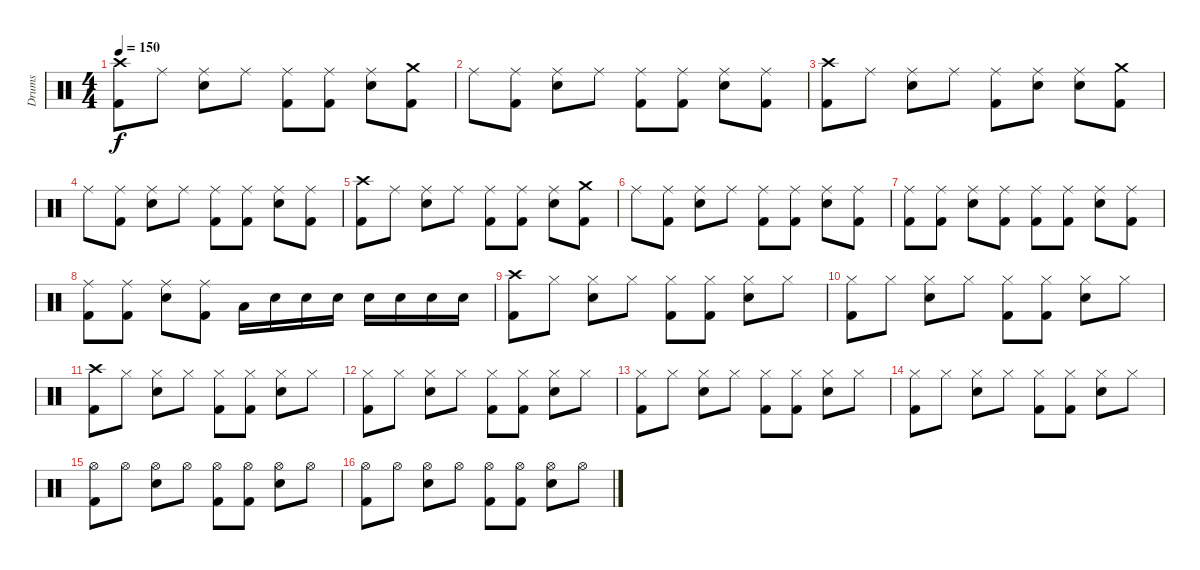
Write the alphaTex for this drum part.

\track ("Drums" "Drums") {instrument percussion}
\staff {score}
\articulation defaults
\ts (4 4)
\tempo 150
\clef neutral
\ks c
("Crash high (hit)" "Kick (hit) 2").8{dy f} "Ride (middle)".8 ("Ride (middle)" "Electric Snare (hit)").8 "Ride (middle)".8 ("Ride (middle)" "Kick (hit) 2").8 ("Ride (middle)" "Kick (hit) 2").8 ("Ride (middle)" "Electric Snare (hit)").8 ("Crash medium (hit)" "Kick (hit) 2").8 |
"Ride (middle)".8 ("Ride (middle)" "Kick (hit) 2").8 ("Ride (middle)" "Electric Snare (hit)").8 "Ride (middle)".8 ("Ride (middle)" "Kick (hit) 2").8 ("Ride (middle)" "Kick (hit) 2").8 ("Ride (middle)" "Electric Snare (hit)").8 ("Ride (middle)" "Kick (hit) 2").8 |
("Crash high (hit)" "Kick (hit) 2").8 "Ride (middle)".8 ("Ride (middle)" "Electric Snare (hit)").8 "Ride (middle)".8 ("Ride (middle)" "Kick (hit) 2").8 ("Ride (middle)" "Electric Snare (hit)").8 ("Ride (middle)" "Electric Snare (hit)").8 ("Crash medium (hit)" "Kick (hit) 2").8 |
"Ride (middle)".8 ("Ride (middle)" "Kick (hit) 2").8 ("Ride (middle)" "Electric Snare (hit)").8 "Ride (middle)".8 ("Ride (middle)" "Kick (hit) 2").8 ("Ride (middle)" "Kick (hit) 2").8 ("Ride (middle)" "Electric Snare (hit)").8 ("Ride (middle)" "Kick (hit) 2").8 |
("Crash high (hit)" "Kick (hit) 2").8 "Ride (middle)".8 ("Ride (middle)" "Electric Snare (hit)").8 "Ride (middle)".8 ("Ride (middle)" "Kick (hit) 2").8 ("Ride (middle)" "Kick (hit) 2").8 ("Ride (middle)" "Electric Snare (hit)").8 ("Crash medium (hit)" "Kick (hit) 2").8 |
"Ride (middle)".8 ("Ride (middle)" "Kick (hit) 2").8 ("Ride (middle)" "Electric Snare (hit)").8 "Ride (middle)".8 ("Ride (middle)" "Kick (hit) 2").8 ("Ride (middle)" "Kick (hit) 2").8 ("Ride (middle)" "Electric Snare (hit)").8 ("Ride (middle)" "Kick (hit) 2").8 |
("Ride (middle)" "Kick (hit) 2").8 ("Ride (middle)" "Kick (hit) 2").8 ("Ride (middle)" "Electric Snare (hit)").8 ("Ride (middle)" "Kick (hit) 2").8 ("Ride (middle)" "Kick (hit) 2").8 ("Ride (middle)" "Kick (hit) 2").8 ("Ride (middle)" "Electric Snare (hit)").8 ("Ride (middle)" "Kick (hit) 2").8 |
("Ride (middle)" "Kick (hit) 2").8 ("Ride (middle)" "Kick (hit) 2").8 ("Ride (middle)" "Electric Snare (hit)").8 ("Ride (middle)" "Kick (hit) 2").8 "Low Floor Tom (hit)".16 "Electric Snare (hit)".16 "Electric Snare (hit)".16 "Electric Snare (hit)".16 "Electric Snare (hit)".16 "Electric Snare (hit)".16 "Electric Snare (hit)".16 "Electric Snare (hit)".16 |
("Crash high (hit)" "Kick (hit) 2").8 "Hi-Hat (closed)".8 ("Hi-Hat (closed)" "Electric Snare (hit)").8 "Hi-Hat (closed)".8 ("Hi-Hat (closed)" "Kick (hit) 2").8 ("Hi-Hat (closed)" "Kick (hit) 2").8 ("Hi-Hat (closed)" "Electric Snare (hit)").8 "Hi-Hat (closed)".8 |
("Hi-Hat (closed)" "Kick (hit) 2").8 "Hi-Hat (closed)".8 ("Hi-Hat (closed)" "Electric Snare (hit)").8 "Hi-Hat (closed)".8 ("Hi-Hat (closed)" "Kick (hit) 2").8 ("Hi-Hat (closed)" "Kick (hit) 2").8 ("Hi-Hat (closed)" "Electric Snare (hit)").8 "Hi-Hat (closed)".8 |
("Crash high (hit)" "Kick (hit) 2").8 "Hi-Hat (closed)".8 ("Hi-Hat (closed)" "Electric Snare (hit)").8 "Hi-Hat (closed)".8 ("Hi-Hat (closed)" "Kick (hit) 2").8 ("Hi-Hat (closed)" "Kick (hit) 2").8 ("Hi-Hat (closed)" "Electric Snare (hit)").8 "Hi-Hat (closed)".8 |
("Hi-Hat (closed)" "Kick (hit) 2").8 "Hi-Hat (closed)".8 ("Hi-Hat (closed)" "Electric Snare (hit)").8 "Hi-Hat (closed)".8 ("Hi-Hat (closed)" "Kick (hit) 2").8 ("Hi-Hat (closed)" "Kick (hit) 2").8 ("Hi-Hat (closed)" "Electric Snare (hit)").8 "Hi-Hat (closed)".8 |
("Hi-Hat (closed)" "Kick (hit) 2").8 "Hi-Hat (closed)".8 ("Hi-Hat (closed)" "Electric Snare (hit)").8 "Hi-Hat (closed)".8 ("Hi-Hat (closed)" "Kick (hit) 2").8 ("Hi-Hat (closed)" "Kick (hit) 2").8 ("Hi-Hat (closed)" "Electric Snare (hit)").8 "Hi-Hat (closed)".8 |
("Hi-Hat (closed)" "Kick (hit) 2").8 "Hi-Hat (closed)".8 ("Hi-Hat (closed)" "Electric Snare (hit)").8 "Hi-Hat (closed)".8 ("Hi-Hat (closed)" "Kick (hit) 2").8 ("Hi-Hat (closed)" "Kick (hit) 2").8 ("Hi-Hat (closed)" "Electric Snare (hit)").8 "Hi-Hat (closed)".8 |
("Hi-Hat (open)" "Kick (hit) 2").8 "Hi-Hat (open)".8 ("Hi-Hat (open)" "Electric Snare (hit)").8 "Hi-Hat (open)".8 ("Hi-Hat (open)" "Kick (hit) 2").8 ("Hi-Hat (open)" "Kick (hit) 2").8 ("Hi-Hat (open)" "Electric Snare (hit)").8 "Hi-Hat (open)".8 |
("Hi-Hat (open)" "Kick (hit) 2").8 "Hi-Hat (open)".8 ("Hi-Hat (open)" "Electric Snare (hit)").8 "Hi-Hat (open)".8 ("Hi-Hat (open)" "Kick (hit) 2").8 ("Hi-Hat (open)" "Kick (hit) 2").8 ("Hi-Hat (open)" "Electric Snare (hit)").8 "Hi-Hat (open)".8
